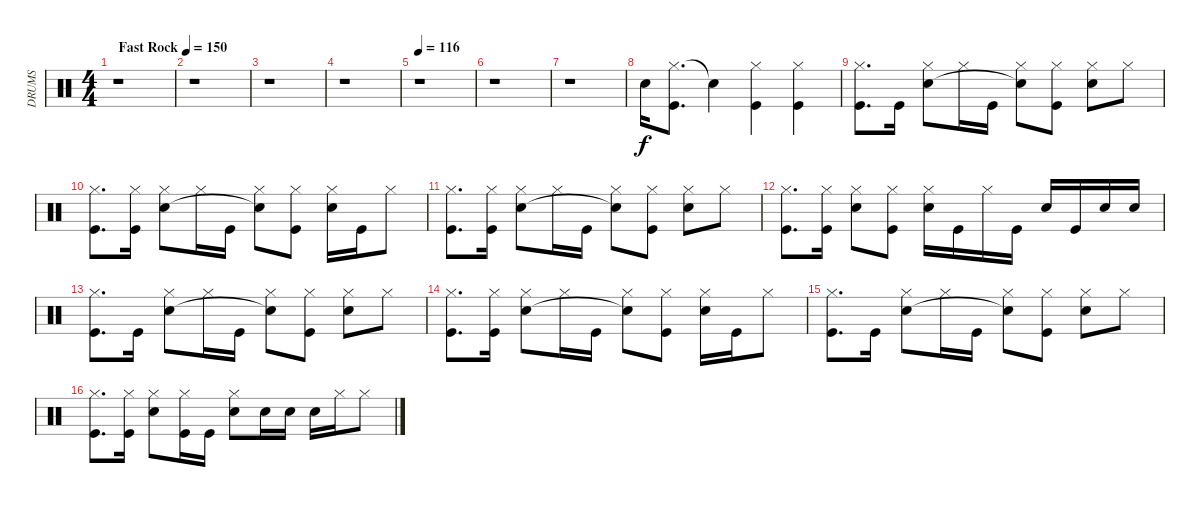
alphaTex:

\track ("DRUMS" "DRUMS") {instrument percussion}
\staff {score}
\articulation defaults
\ts (4 4)
\tempo (150 "Fast Rock")
\clef neutral
\ks c
r.1{dy f} |
r.1 |
r.1 |
r.1 |
\tempo 116
r.1 |
r.1 |
r.1 |
"Snare (hit) 2".16 ("Hi-Hat (closed)" "Kick (hit)").8{d} "Snare (hit)"{t}.4 ("Hi-Hat (closed)" "Kick (hit)").4 ("Hi-Hat (closed)" "Kick (hit)").4 |
("Hi-Hat (closed)" "Kick (hit)").8{d} "Kick (hit)".16 ("Hi-Hat (closed)" "Snare (hit) 2").8 "Hi-Hat (closed)".16 "Kick (hit)".16 ("Hi-Hat (closed)" "Snare (hit)"{t}).8 ("Hi-Hat (closed)" "Kick (hit)").8 ("Hi-Hat (closed)" "Snare (hit) 2").8 "Hi-Hat (closed)".8 |
("Hi-Hat (closed)" "Kick (hit)").8{d} ("Hi-Hat (closed)" "Kick (hit)").16 ("Hi-Hat (closed)" "Snare (hit) 2").8 "Hi-Hat (closed)".16 "Kick (hit)".16 ("Hi-Hat (closed)" "Snare (hit)"{t}).8 ("Hi-Hat (closed)" "Kick (hit)").8 ("Hi-Hat (closed)" "Snare (hit) 2").16 "Kick (hit)".16 "Hi-Hat (closed)".8 |
("Hi-Hat (closed)" "Kick (hit)").8{d} ("Hi-Hat (closed)" "Kick (hit)").16 ("Hi-Hat (closed)" "Snare (hit) 2").8 "Hi-Hat (closed)".16 "Kick (hit)".16 ("Hi-Hat (closed)" "Snare (hit)"{t}).8 ("Hi-Hat (closed)" "Kick (hit)").8 ("Hi-Hat (closed)" "Snare (hit) 2").8 "Hi-Hat (closed)".8 |
("Hi-Hat (closed)" "Kick (hit)").8{d} ("Hi-Hat (closed)" "Kick (hit)").16 ("Hi-Hat (closed)" "Snare (hit) 2").8 ("Hi-Hat (closed)" "Kick (hit)").8 ("Hi-Hat (closed)" "Snare (hit) 2").16 "Kick (hit)".16 "Hi-Hat (closed)".16 "Kick (hit)".16 "Snare (hit) 2".16 "Kick (hit)".16 "Snare (hit) 2".16 "Snare (hit) 2".16 |
("Hi-Hat (closed)" "Kick (hit)").8{d} "Kick (hit)".16 ("Hi-Hat (closed)" "Snare (hit) 2").8 "Hi-Hat (closed)".16 "Kick (hit)".16 ("Hi-Hat (closed)" "Snare (hit)"{t}).8 ("Hi-Hat (closed)" "Kick (hit)").8 ("Hi-Hat (closed)" "Snare (hit) 2").8 "Hi-Hat (closed)".8 |
("Hi-Hat (closed)" "Kick (hit)").8{d} ("Hi-Hat (closed)" "Kick (hit)").16 ("Hi-Hat (closed)" "Snare (hit) 2").8 "Hi-Hat (closed)".16 "Kick (hit)".16 ("Hi-Hat (closed)" "Snare (hit)"{t}).8 ("Hi-Hat (closed)" "Kick (hit)").8 ("Hi-Hat (closed)" "Snare (hit) 2").16 "Kick (hit)".16 "Hi-Hat (closed)".8 |
("Hi-Hat (closed)" "Kick (hit)").8{d} "Kick (hit)".16 ("Hi-Hat (closed)" "Snare (hit) 2").8 "Hi-Hat (closed)".16 "Kick (hit)".16 ("Hi-Hat (closed)" "Snare (hit)"{t}).8 ("Hi-Hat (closed)" "Kick (hit)").8 ("Hi-Hat (closed)" "Snare (hit) 2").8 "Hi-Hat (closed)".8 |
("Hi-Hat (closed)" "Kick (hit)").8{d} ("Hi-Hat (closed)" "Kick (hit)").16 ("Hi-Hat (closed)" "Snare (hit) 2").8 ("Hi-Hat (closed)" "Kick (hit)").16 "Kick (hit)".16 ("Hi-Hat (closed)" "Snare (hit) 2").8 "Snare (hit) 2".16 "Snare (hit) 2".16 "Snare (hit) 2".16 "Hi-Hat (closed)".16 "Hi-Hat (closed)".8
